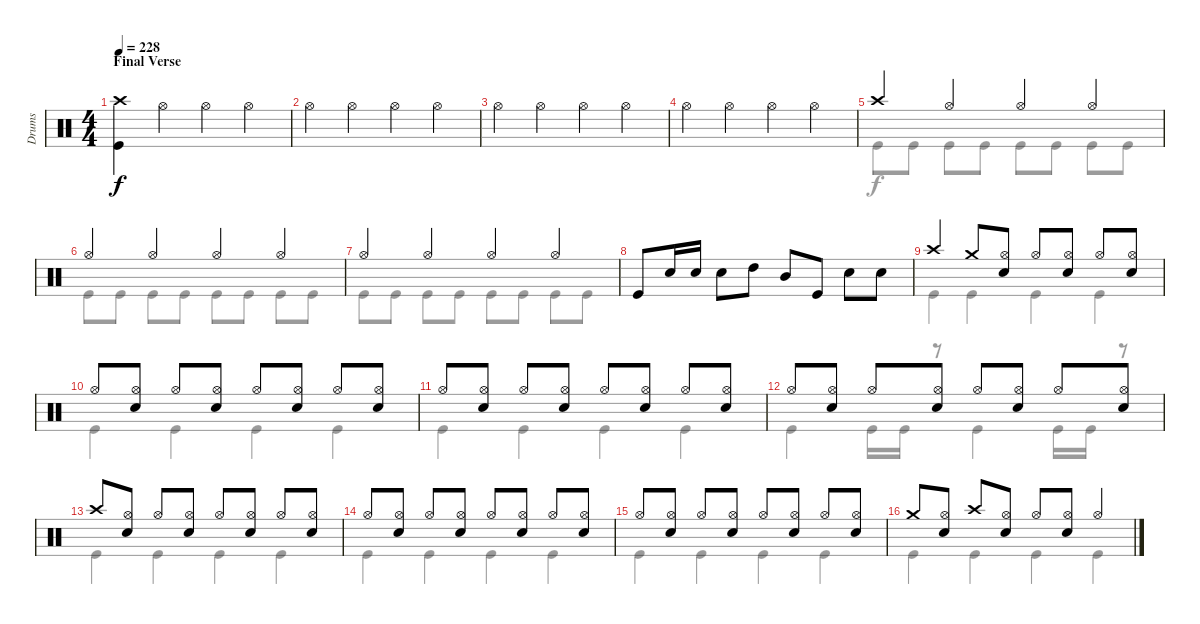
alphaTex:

\track ("Drums" "Drums") {instrument percussion}
\staff {score}
\articulation defaults
\voice
\ts (4 4)
\section ("" "Final Verse")
\tempo 228
\clef neutral
\ks c
("Crash high (hit)" "Kick (hit)").4{dy f} "Hi-Hat (open)".4 "Hi-Hat (open)".4 "Hi-Hat (open)".4 |
"Hi-Hat (open)".4 "Hi-Hat (open)".4 "Hi-Hat (open)".4 "Hi-Hat (open)".4 |
"Hi-Hat (open)".4 "Hi-Hat (open)".4 "Hi-Hat (open)".4 "Hi-Hat (open)".4 |
"Hi-Hat (open)".4 "Hi-Hat (open)".4 "Hi-Hat (open)".4 "Hi-Hat (open)".4 |
"Crash high (hit)".4 "Hi-Hat (open)".4 "Hi-Hat (open)".4 "Hi-Hat (open)".4 |
"Hi-Hat (open)".4 "Hi-Hat (open)".4 "Hi-Hat (open)".4 "Hi-Hat (open)".4 |
"Hi-Hat (open)".4 "Hi-Hat (open)".4 "Hi-Hat (open)".4 "Hi-Hat (open)".4 |
"Kick (hit)".8 "Snare (hit) 2".16 "Snare (hit) 2".16 "Snare (hit) 2".8 "High Tom (hit)".8 "Mid Tom (hit)".8 "Kick (hit)".8 "Snare (hit) 2".8 "Snare (hit) 2".8 |
"Crash high (hit)".4 "Crash medium (hit)".8 ("Hi-Hat (open)" "Snare (hit) 2").8 "Hi-Hat (open)".8 ("Hi-Hat (open)" "Snare (hit) 2").8 "Hi-Hat (open)".8 ("Hi-Hat (open)" "Snare (hit) 2").8 |
"Hi-Hat (open)".8 ("Hi-Hat (open)" "Snare (hit) 2").8 "Hi-Hat (open)".8 ("Hi-Hat (open)" "Snare (hit) 2").8 "Hi-Hat (open)".8 ("Hi-Hat (open)" "Snare (hit) 2").8 "Hi-Hat (open)".8 ("Hi-Hat (open)" "Snare (hit) 2").8 |
"Hi-Hat (open)".8 ("Hi-Hat (open)" "Snare (hit) 2").8 "Hi-Hat (open)".8 ("Hi-Hat (open)" "Snare (hit) 2").8 "Hi-Hat (open)".8 ("Hi-Hat (open)" "Snare (hit) 2").8 "Hi-Hat (open)".8 ("Hi-Hat (open)" "Snare (hit) 2").8 |
"Hi-Hat (open)".8 ("Hi-Hat (open)" "Snare (hit) 2").8 "Hi-Hat (open)".8 ("Hi-Hat (open)" "Snare (hit) 2").8 "Hi-Hat (open)".8 ("Hi-Hat (open)" "Snare (hit) 2").8 "Hi-Hat (open)".8 ("Hi-Hat (open)" "Snare (hit) 2").8 |
"Crash high (hit)".8 ("Hi-Hat (open)" "Snare (hit) 2").8 "Hi-Hat (open)".8 ("Hi-Hat (open)" "Snare (hit) 2").8 "Hi-Hat (open)".8 ("Hi-Hat (open)" "Snare (hit) 2").8 "Hi-Hat (open)".8 ("Hi-Hat (open)" "Snare (hit) 2").8 |
"Hi-Hat (open)".8 ("Hi-Hat (open)" "Snare (hit) 2").8 "Hi-Hat (open)".8 ("Hi-Hat (open)" "Snare (hit) 2").8 "Hi-Hat (open)".8 ("Hi-Hat (open)" "Snare (hit) 2").8 "Hi-Hat (open)".8 ("Hi-Hat (open)" "Snare (hit) 2").8 |
"Hi-Hat (open)".8 ("Hi-Hat (open)" "Snare (hit) 2").8 "Hi-Hat (open)".8 ("Hi-Hat (open)" "Snare (hit) 2").8 "Hi-Hat (open)".8 ("Hi-Hat (open)" "Snare (hit) 2").8 "Hi-Hat (open)".8 ("Hi-Hat (open)" "Snare (hit) 2").8 |
"Crash medium (hit)".8 ("Hi-Hat (open)" "Snare (hit) 2").8 "Crash high (hit)".8 ("Hi-Hat (open)" "Snare (hit) 2").8 "Hi-Hat (open)".8 ("Hi-Hat (open)" "Snare (hit) 2").8 "Hi-Hat (open)".4
\voice
\clef neutral
\ottava regular
\simile none
\ks c
|
|
|
|
"Kick (hit)".8 "Kick (hit)".8 "Kick (hit)".8 "Kick (hit)".8 "Kick (hit)".8 "Kick (hit)".8 "Kick (hit)".8 "Kick (hit)".8 |
"Kick (hit)".8 "Kick (hit)".8 "Kick (hit)".8 "Kick (hit)".8 "Kick (hit)".8 "Kick (hit)".8 "Kick (hit)".8 "Kick (hit)".8 |
"Kick (hit)".8 "Kick (hit)".8 "Kick (hit)".8 "Kick (hit)".8 "Kick (hit)".8 "Kick (hit)".8 "Kick (hit)".8 "Kick (hit)".8 |
|
"Kick (hit)".4 "Kick (hit)".4 "Kick (hit)".4 "Kick (hit)".4 |
"Kick (hit)".4 "Kick (hit)".4 "Kick (hit)".4 "Kick (hit)".4 |
"Kick (hit)".4 "Kick (hit)".4 "Kick (hit)".4 "Kick (hit)".4 |
"Kick (hit)".4 "Kick (hit)".16 "Kick (hit)".16 r.8 "Kick (hit)".4 "Kick (hit)".16 "Kick (hit)".16 r.8 |
"Kick (hit)".4 "Kick (hit)".4 "Kick (hit)".4 "Kick (hit)".4 |
"Kick (hit)".4 "Kick (hit)".4 "Kick (hit)".4 "Kick (hit)".4 |
"Kick (hit)".4 "Kick (hit)".4 "Kick (hit)".4 "Kick (hit)".4 |
"Kick (hit)".4 "Kick (hit)".4 "Kick (hit)".4 "Kick (hit)".4
